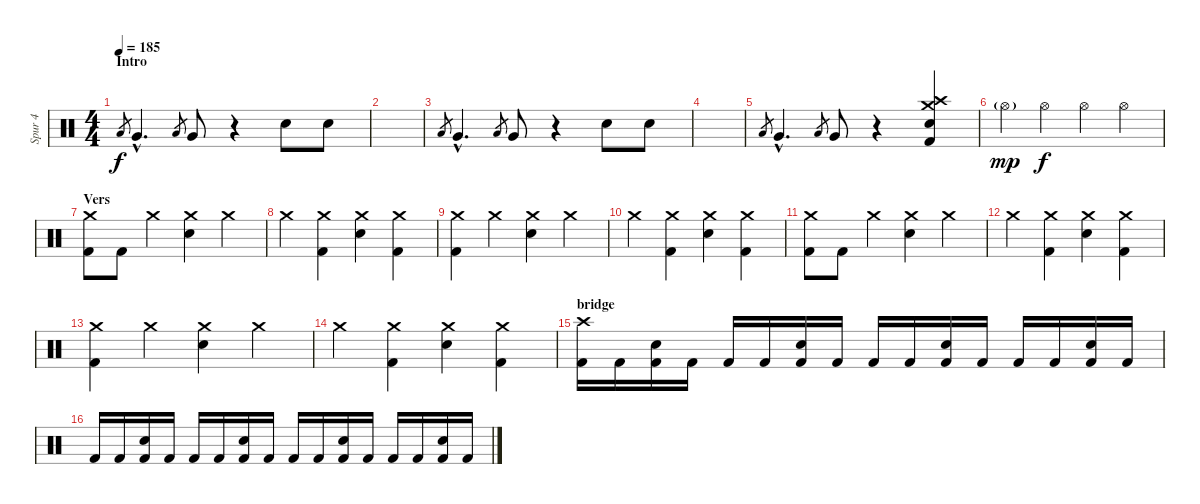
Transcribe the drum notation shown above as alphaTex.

\track ("Spur 4" "Spur 4") {instrument percussion}
\staff {score}
\articulation defaults
\ts (4 4)
\section ("" "Intro")
\tempo 185
\clef neutral
\ks c "Low Tom (hit)".8{gr dy f} "Very Low Tom (hit)"{hac}.4{d} "Low Tom (hit)".8{gr} "Very Low Tom (hit)".8
r.4 "Electric Snare (hit)".8 "Electric Snare (hit)".8 |
|
"Low Tom (hit)".8{gr} "Very Low Tom (hit)"{hac}.4{d} "Low Tom (hit)".8{gr} "Very Low Tom (hit)".8 r.4 "Electric Snare (hit)".8 "Electric Snare (hit)".8 |
|
"Low Tom (hit)".8{gr} "Very Low Tom (hit)"{hac}.4{d} "Low Tom (hit)".8{gr} "Very Low Tom (hit)".8 r.4 ("Crash high (hit)" "Crash medium (hit)" "Electric Snare (hit)" "Kick (hit) 2").4 |
"Hi-Hat (open)"{g}.4{dy mp} "Hi-Hat (open)".4{dy f} "Hi-Hat (open)".4 "Hi-Hat (open)".4 |
\section ("" "Vers")
("Crash medium (hit)" "Kick (hit) 2").8 "Kick (hit) 2".8 "Crash medium (hit)".4 ("Crash medium (hit)" "Electric Snare (hit)").4 "Crash medium (hit)".4 |
"Crash medium (hit)".4 ("Crash medium (hit)" "Kick (hit) 2").4 ("Crash medium (hit)" "Electric Snare (hit)").4 ("Crash medium (hit)" "Kick (hit) 2").4 |
("Crash medium (hit)" "Kick (hit) 2").4 "Crash medium (hit)".4 ("Crash medium (hit)" "Electric Snare (hit)").4 "Crash medium (hit)".4 |
"Crash medium (hit)".4 ("Crash medium (hit)" "Kick (hit) 2").4 ("Crash medium (hit)" "Electric Snare (hit)").4 ("Crash medium (hit)" "Kick (hit) 2").4 |
("Crash medium (hit)" "Kick (hit) 2").8 "Kick (hit) 2".8 "Crash medium (hit)".4 ("Crash medium (hit)" "Electric Snare (hit)").4 "Crash medium (hit)".4 |
"Crash medium (hit)".4 ("Crash medium (hit)" "Kick (hit) 2").4 ("Crash medium (hit)" "Electric Snare (hit)").4 ("Crash medium (hit)" "Kick (hit) 2").4 |
("Crash medium (hit)" "Kick (hit) 2").4 "Crash medium (hit)".4 ("Crash medium (hit)" "Electric Snare (hit)").4 "Crash medium (hit)".4 |
"Crash medium (hit)".4 ("Crash medium (hit)" "Kick (hit) 2").4 ("Crash medium (hit)" "Electric Snare (hit)").4 ("Crash medium (hit)" "Kick (hit) 2").4 |
\section ("" "bridge")
("Crash high (hit)" "Kick (hit) 2").16 "Kick (hit) 2".16 ("Electric Snare (hit)" "Kick (hit) 2").16 "Kick (hit) 2".16 "Kick (hit) 2".16 "Kick (hit) 2".16 ("Electric Snare (hit)" "Kick (hit) 2").16 "Kick (hit) 2".16 "Kick (hit) 2".16 "Kick (hit) 2".16 ("Electric Snare (hit)" "Kick (hit) 2").16 "Kick (hit) 2".16 "Kick (hit) 2".16 "Kick (hit) 2".16 ("Electric Snare (hit)" "Kick (hit) 2").16 "Kick (hit) 2".16 |
"Kick (hit) 2".16 "Kick (hit) 2".16 ("Electric Snare (hit)" "Kick (hit) 2").16 "Kick (hit) 2".16 "Kick (hit) 2".16 "Kick (hit) 2".16 ("Electric Snare (hit)" "Kick (hit) 2").16 "Kick (hit) 2".16 "Kick (hit) 2".16 "Kick (hit) 2".16 ("Electric Snare (hit)" "Kick (hit) 2").16 "Kick (hit) 2".16 "Kick (hit) 2".16 "Kick (hit) 2".16 ("Electric Snare (hit)" "Kick (hit) 2").16 "Kick (hit) 2".16
